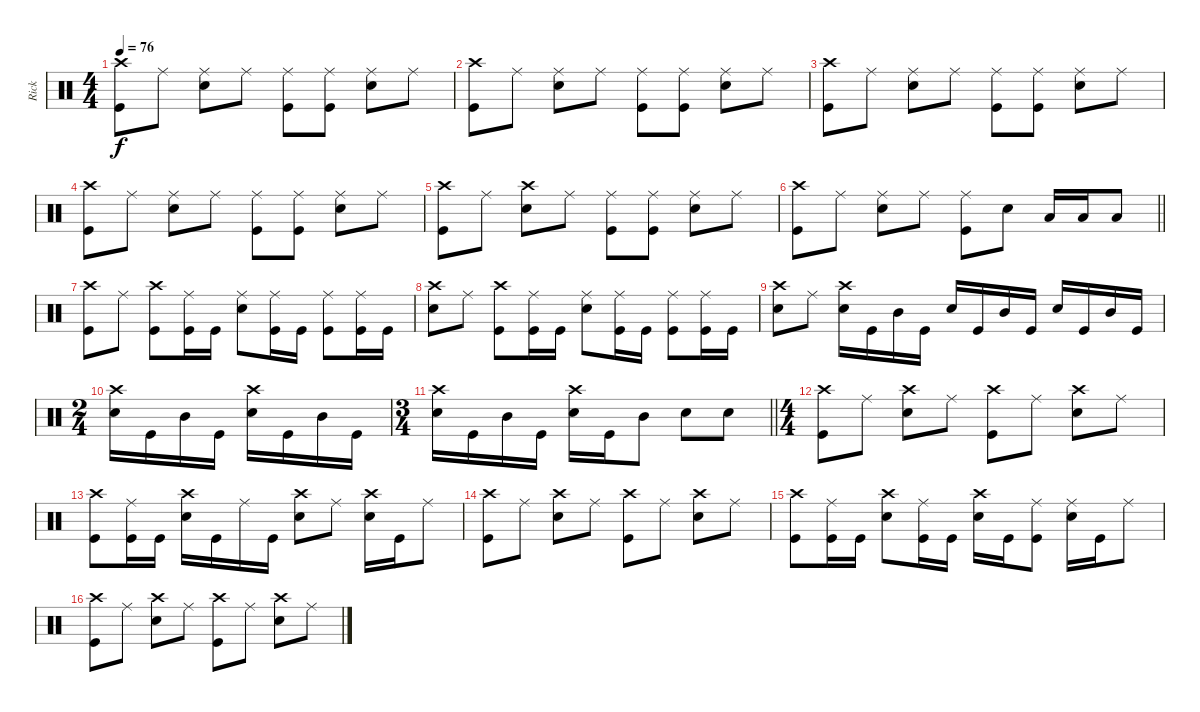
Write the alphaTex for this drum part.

\track ("Rick" "Rick") {instrument percussion}
\staff {score}
\articulation defaults
\ts (4 4)
\tempo 76
\clef neutral
\ks aminor
("Crash high (hit)" "Kick (hit)").8{dy f} "Ride (middle)".8 ("Ride (middle)" "Snare (hit) 2").8 "Ride (middle)".8 ("Ride (middle)" "Kick (hit)").8 ("Ride (middle)" "Kick (hit)").8 ("Ride (middle)" "Snare (hit) 2").8 "Ride (middle)".8 |
("Crash high (hit)" "Kick (hit)").8 "Ride (middle)".8 ("Ride (middle)" "Snare (hit) 2").8 "Ride (middle)".8 ("Ride (middle)" "Kick (hit)").8 ("Ride (middle)" "Kick (hit)").8 ("Ride (middle)" "Snare (hit) 2").8 "Ride (middle)".8 |
("Crash high (hit)" "Kick (hit)").8 "Ride (middle)".8 ("Ride (middle)" "Snare (hit) 2").8 "Ride (middle)".8 ("Ride (middle)" "Kick (hit)").8 ("Ride (middle)" "Kick (hit)").8 ("Ride (middle)" "Snare (hit) 2").8 "Ride (middle)".8 |
("Crash high (hit)" "Kick (hit)").8 "Ride (middle)".8 ("Ride (middle)" "Snare (hit) 2").8 "Ride (middle)".8 ("Ride (middle)" "Kick (hit)").8 ("Ride (middle)" "Kick (hit)").8 ("Ride (middle)" "Snare (hit) 2").8 "Ride (middle)".8 |
("Crash high (hit)" "Kick (hit)").8 "Ride (middle)".8 ("Crash high (hit)" "Snare (hit) 2").8 "Ride (middle)".8 ("Ride (middle)" "Kick (hit)").8 ("Ride (middle)" "Kick (hit)").8 ("Ride (middle)" "Snare (hit) 2").8 "Ride (middle)".8 |
\barLineRight lightlight
("Crash high (hit)" "Kick (hit)").8 "Ride (middle)".8 ("Ride (middle)" "Snare (hit) 2").8 "Ride (middle)".8 ("Ride (middle)" "Kick (hit)").8 "Snare (hit) 2".8 "Low Tom (hit)".16 "Low Tom (hit)".16 "Low Tom (hit)".8 |
("Crash high (hit)" "Kick (hit)").8 "Ride (middle)".8 ("Crash high (hit)" "Kick (hit)").8 ("Ride (middle)" "Kick (hit)").16 "Kick (hit)".16 ("Ride (middle)" "Snare (hit) 2").8 ("Ride (middle)" "Kick (hit)").16 "Kick (hit)".16 ("Ride (middle)" "Kick (hit)").8 ("Ride (middle)" "Kick (hit)").16 "Kick (hit)".16 |
("Crash high (hit)" "Snare (hit) 2").8 "Ride (middle)".8 ("Crash high (hit)" "Kick (hit)").8 ("Ride (middle)" "Kick (hit)").16 "Kick (hit)".16 ("Ride (middle)" "Snare (hit) 2").8 ("Ride (middle)" "Kick (hit)").16 "Kick (hit)".16 ("Ride (middle)" "Kick (hit)").8 ("Ride (middle)" "Kick (hit)").16 "Kick (hit)".16 |
("Crash high (hit)" "Snare (hit) 2").8 "Ride (middle)".8 ("Crash high (hit)" "Snare (hit) 2").16 "Kick (hit)".16 "Mid Tom (hit)".16 "Kick (hit)".16 "Snare (hit) 2".16 "Kick (hit)".16 "Mid Tom (hit)".16 "Kick (hit)".16 "Snare (hit) 2".16 "Kick (hit)".16 "Mid Tom (hit)".16 "Kick (hit)".16 |
\ts (2 4)
("Crash high (hit)" "Snare (hit) 2").16 "Kick (hit)".16 "Mid Tom (hit)".16 "Kick (hit)".16 ("Crash high (hit)" "Snare (hit) 2").16 "Kick (hit)".16 "Mid Tom (hit)".16 "Kick (hit)".16 |
\ts (3 4)
\barLineRight lightlight
("Crash high (hit)" "Snare (hit) 2").16 "Kick (hit)".16 "Mid Tom (hit)".16 "Kick (hit)".16 ("Crash high (hit)" "Snare (hit) 2").16 "Kick (hit)".16 "Mid Tom (hit)".8 "Snare (hit) 2".8 "Snare (hit) 2".8 |
\ts (4 4)
("Crash high (hit)" "Kick (hit)").8 "Ride (middle)".8 ("Crash high (hit)" "Snare (hit) 2").8 "Ride (middle)".8 ("Crash high (hit)" "Kick (hit)").8 "Ride (middle)".8 ("Crash high (hit)" "Snare (hit) 2").8 "Ride (middle)".8 |
("Crash high (hit)" "Kick (hit)").8 ("Ride (middle)" "Kick (hit)").16 "Kick (hit)".16 ("Crash high (hit)" "Snare (hit) 2").16 "Kick (hit)".16 "Ride (middle)".16 "Kick (hit)".16 ("Crash high (hit)" "Snare (hit) 2").8 "Ride (middle)".8 ("Crash high (hit)" "Snare (hit) 2").16 "Kick (hit)".16 "Ride (middle)".8 |
("Crash high (hit)" "Kick (hit)").8 "Ride (middle)".8 ("Crash high (hit)" "Snare (hit) 2").8 "Ride (middle)".8 ("Crash high (hit)" "Kick (hit)").8 "Ride (middle)".8 ("Crash high (hit)" "Snare (hit) 2").8 "Ride (middle)".8 |
("Crash high (hit)" "Kick (hit)").8 ("Ride (middle)" "Kick (hit)").16 "Kick (hit)".16 ("Crash high (hit)" "Snare (hit) 2").8 ("Ride (middle)" "Kick (hit)").16 "Kick (hit)".16 ("Crash high (hit)" "Snare (hit) 2").16 "Kick (hit)".16 ("Ride (middle)" "Kick (hit)").8 ("Ride (middle)" "Snare (hit) 2").16 "Kick (hit)".16 "Ride (middle)".8 |
("Crash high (hit)" "Kick (hit)").8 "Ride (middle)".8 ("Crash high (hit)" "Snare (hit) 2").8 "Ride (middle)".8 ("Crash high (hit)" "Kick (hit)").8 "Ride (middle)".8 ("Crash high (hit)" "Snare (hit) 2").8 "Ride (middle)".8
